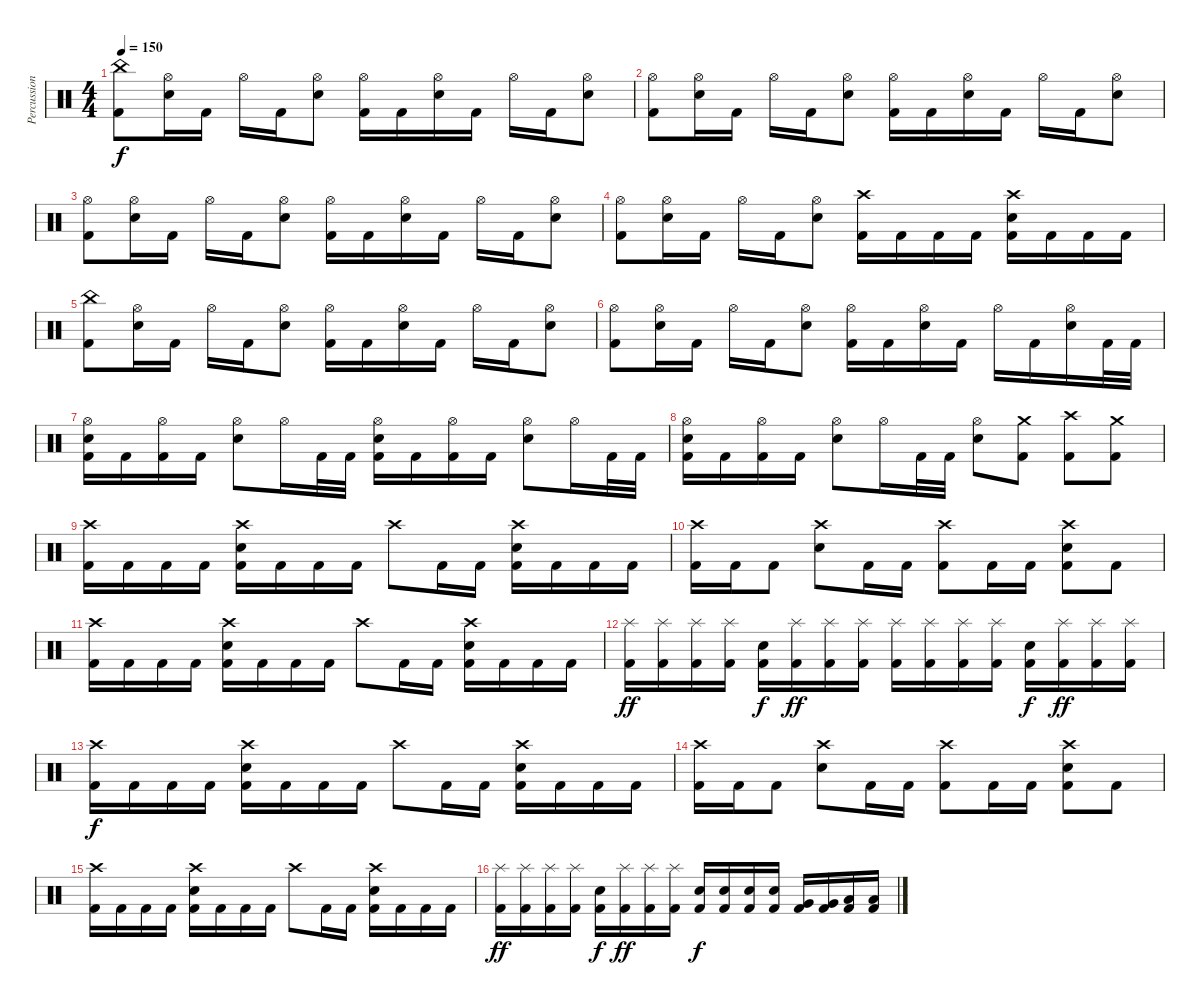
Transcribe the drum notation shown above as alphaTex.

\track ("Percussion" "Percussion") {instrument percussion}
\staff {score}
\articulation defaults
\ts (4 4)
\tempo 150
\clef neutral
\ks c
("China (hit)" "Kick (hit) 2").8{dy f} ("Hi-Hat (open)" "Electric Snare (hit)").16 "Kick (hit) 2".16 "Hi-Hat (open)".16 "Kick (hit) 2".16 ("Hi-Hat (open)" "Electric Snare (hit)").8 ("Hi-Hat (open)" "Kick (hit) 2").16 "Kick (hit) 2".16 ("Hi-Hat (open)" "Electric Snare (hit)").16 "Kick (hit) 2".16 "Hi-Hat (open)".16 "Kick (hit) 2".16 ("Hi-Hat (open)" "Electric Snare (hit)").8 |
("Hi-Hat (open)" "Kick (hit) 2").8 ("Hi-Hat (open)" "Electric Snare (hit)").16 "Kick (hit) 2".16 "Hi-Hat (open)".16 "Kick (hit) 2".16 ("Hi-Hat (open)" "Electric Snare (hit)").8 ("Hi-Hat (open)" "Kick (hit) 2").16 "Kick (hit) 2".16 ("Hi-Hat (open)" "Electric Snare (hit)").16 "Kick (hit) 2".16 "Hi-Hat (open)".16 "Kick (hit) 2".16 ("Hi-Hat (open)" "Electric Snare (hit)").8 |
("Hi-Hat (open)" "Kick (hit) 2").8 ("Hi-Hat (open)" "Electric Snare (hit)").16 "Kick (hit) 2".16 "Hi-Hat (open)".16 "Kick (hit) 2".16 ("Hi-Hat (open)" "Electric Snare (hit)").8 ("Hi-Hat (open)" "Kick (hit) 2").16 "Kick (hit) 2".16 ("Hi-Hat (open)" "Electric Snare (hit)").16 "Kick (hit) 2".16 "Hi-Hat (open)".16 "Kick (hit) 2".16 ("Hi-Hat (open)" "Electric Snare (hit)").8 |
("Hi-Hat (open)" "Kick (hit) 2").8 ("Hi-Hat (open)" "Electric Snare (hit)").16 "Kick (hit) 2".16 "Hi-Hat (open)".16 "Kick (hit) 2".16 ("Hi-Hat (open)" "Electric Snare (hit)").8 ("Crash high (hit)" "Kick (hit) 2").16 "Kick (hit) 2".16 "Kick (hit) 2".16 "Kick (hit) 2".16 ("Crash high (hit)" "Electric Snare (hit)" "Kick (hit) 2").16 "Kick (hit) 2".16 "Kick (hit) 2".16 "Kick (hit) 2".16 |
("China (hit)" "Kick (hit) 2").8 ("Hi-Hat (open)" "Electric Snare (hit)").16 "Kick (hit) 2".16 "Hi-Hat (open)".16 "Kick (hit) 2".16 ("Hi-Hat (open)" "Electric Snare (hit)").8 ("Hi-Hat (open)" "Kick (hit) 2").16 "Kick (hit) 2".16 ("Hi-Hat (open)" "Electric Snare (hit)").16 "Kick (hit) 2".16 "Hi-Hat (open)".16 "Kick (hit) 2".16 ("Hi-Hat (open)" "Electric Snare (hit)").8 |
("Hi-Hat (open)" "Kick (hit) 2").8 ("Hi-Hat (open)" "Electric Snare (hit)").16 "Kick (hit) 2".16 "Hi-Hat (open)".16 "Kick (hit) 2".16 ("Hi-Hat (open)" "Electric Snare (hit)").8 ("Hi-Hat (open)" "Kick (hit) 2").16 "Kick (hit) 2".16 ("Hi-Hat (open)" "Electric Snare (hit)").16 "Kick (hit) 2".16 "Hi-Hat (open)".16 "Kick (hit) 2".16 ("Hi-Hat (open)" "Electric Snare (hit)").16 "Kick (hit) 2".32 "Kick (hit) 2".32 |
("Hi-Hat (open)" "Electric Snare (hit)" "Kick (hit) 2").16 "Kick (hit) 2".16 ("Hi-Hat (open)" "Kick (hit) 2").16 "Kick (hit) 2".16 ("Hi-Hat (open)" "Electric Snare (hit)").8 "Hi-Hat (open)".16 "Kick (hit) 2".32 "Kick (hit) 2".32 ("Hi-Hat (open)" "Electric Snare (hit)" "Kick (hit) 2").16 "Kick (hit) 2".16 ("Hi-Hat (open)" "Kick (hit) 2").16 "Kick (hit) 2".16 ("Hi-Hat (open)" "Electric Snare (hit)").8 "Hi-Hat (open)".16 "Kick (hit) 2".32 "Kick (hit) 2".32 |
("Hi-Hat (open)" "Electric Snare (hit)" "Kick (hit) 2").16 "Kick (hit) 2".16 ("Hi-Hat (open)" "Kick (hit) 2").16 "Kick (hit) 2".16 ("Hi-Hat (open)" "Electric Snare (hit)").8 "Hi-Hat (open)".16 "Kick (hit) 2".32 "Kick (hit) 2".32 ("Hi-Hat (open)" "Electric Snare (hit)").8 ("Crash medium (hit)" "Kick (hit) 2").8 ("Crash high (hit)" "Kick (hit) 2").8 ("Crash medium (hit)" "Kick (hit) 2").8 |
("Crash high (hit)" "Kick (hit) 2").16 "Kick (hit) 2".16 "Kick (hit) 2".16 "Kick (hit) 2".16 ("Crash high (hit)" "Electric Snare (hit)" "Kick (hit) 2").16 "Kick (hit) 2".16 "Kick (hit) 2".16 "Kick (hit) 2".16 "Crash high (hit)".8 "Kick (hit) 2".16 "Kick (hit) 2".16 ("Crash high (hit)" "Electric Snare (hit)" "Kick (hit) 2").16 "Kick (hit) 2".16 "Kick (hit) 2".16 "Kick (hit) 2".16 |
("Crash high (hit)" "Kick (hit) 2").16 "Kick (hit) 2".16 "Kick (hit) 2".8 ("Crash high (hit)" "Electric Snare (hit)").8 "Kick (hit) 2".16 "Kick (hit) 2".16 ("Crash high (hit)" "Kick (hit) 2").8 "Kick (hit) 2".16 "Kick (hit) 2".16 ("Crash high (hit)" "Electric Snare (hit)" "Kick (hit) 2").8 "Kick (hit) 2".8 |
("Crash high (hit)" "Kick (hit) 2").16 "Kick (hit) 2".16 "Kick (hit) 2".16 "Kick (hit) 2".16 ("Crash high (hit)" "Electric Snare (hit)" "Kick (hit) 2").16 "Kick (hit) 2".16 "Kick (hit) 2".16 "Kick (hit) 2".16 "Crash high (hit)".8 "Kick (hit) 2".16 "Kick (hit) 2".16 ("Crash high (hit)" "Electric Snare (hit)" "Kick (hit) 2").16 "Kick (hit) 2".16 "Kick (hit) 2".16 "Kick (hit) 2".16 |
("Splash (hit)" "Kick (hit) 2").16{dy ff} ("Splash (hit)" "Kick (hit) 2").16 ("Splash (hit)" "Kick (hit) 2").16 ("Splash (hit)" "Kick (hit) 2").16 ("Electric Snare (hit)" "Kick (hit) 2").16{dy f} ("Splash (hit)" "Kick (hit) 2").16{dy ff} ("Splash (hit)" "Kick (hit) 2").16 ("Splash (hit)" "Kick (hit) 2").16 ("Splash (hit)" "Kick (hit) 2").16 ("Splash (hit)" "Kick (hit) 2").16 ("Splash (hit)" "Kick (hit) 2").16 ("Splash (hit)" "Kick (hit) 2").16 ("Electric Snare (hit)" "Kick (hit) 2").16{dy f} ("Splash (hit)" "Kick (hit) 2").16{dy ff} ("Splash (hit)" "Kick (hit) 2").16 ("Splash (hit)" "Kick (hit) 2").16 |
("Crash high (hit)" "Kick (hit) 2").16{dy f} "Kick (hit) 2".16 "Kick (hit) 2".16 "Kick (hit) 2".16 ("Crash high (hit)" "Electric Snare (hit)" "Kick (hit) 2").16 "Kick (hit) 2".16 "Kick (hit) 2".16 "Kick (hit) 2".16 "Crash high (hit)".8 "Kick (hit) 2".16 "Kick (hit) 2".16 ("Crash high (hit)" "Electric Snare (hit)" "Kick (hit) 2").16 "Kick (hit) 2".16 "Kick (hit) 2".16 "Kick (hit) 2".16 |
("Crash high (hit)" "Kick (hit) 2").16 "Kick (hit) 2".16 "Kick (hit) 2".8 ("Crash high (hit)" "Electric Snare (hit)").8 "Kick (hit) 2".16 "Kick (hit) 2".16 ("Crash high (hit)" "Kick (hit) 2").8 "Kick (hit) 2".16 "Kick (hit) 2".16 ("Crash high (hit)" "Electric Snare (hit)" "Kick (hit) 2").8 "Kick (hit) 2".8 |
("Crash high (hit)" "Kick (hit) 2").16 "Kick (hit) 2".16 "Kick (hit) 2".16 "Kick (hit) 2".16 ("Crash high (hit)" "Electric Snare (hit)" "Kick (hit) 2").16 "Kick (hit) 2".16 "Kick (hit) 2".16 "Kick (hit) 2".16 "Crash high (hit)".8 "Kick (hit) 2".16 "Kick (hit) 2".16 ("Crash high (hit)" "Electric Snare (hit)" "Kick (hit) 2").16 "Kick (hit) 2".16 "Kick (hit) 2".16 "Kick (hit) 2".16 |
("Splash (hit)" "Kick (hit) 2").16{dy ff} ("Splash (hit)" "Kick (hit) 2").16 ("Splash (hit)" "Kick (hit) 2").16 ("Splash (hit)" "Kick (hit) 2").16 ("Electric Snare (hit)" "Kick (hit) 2").16{dy f} ("Splash (hit)" "Kick (hit) 2").16{dy ff} ("Splash (hit)" "Kick (hit) 2").16 ("Splash (hit)" "Kick (hit) 2").16 ("Electric Snare (hit)" "Kick (hit) 2").16{dy f} ("Electric Snare (hit)" "Kick (hit) 2").16 ("Electric Snare (hit)" "Kick (hit) 2").16 ("Electric Snare (hit)" "Kick (hit) 2").16 ("Very Low Tom (hit)" "Kick (hit) 2").16 ("Very Low Tom (hit)" "Kick (hit) 2").16 ("Low Floor Tom (hit)" "Kick (hit) 2").16 ("Low Floor Tom (hit)" "Kick (hit) 2").16
